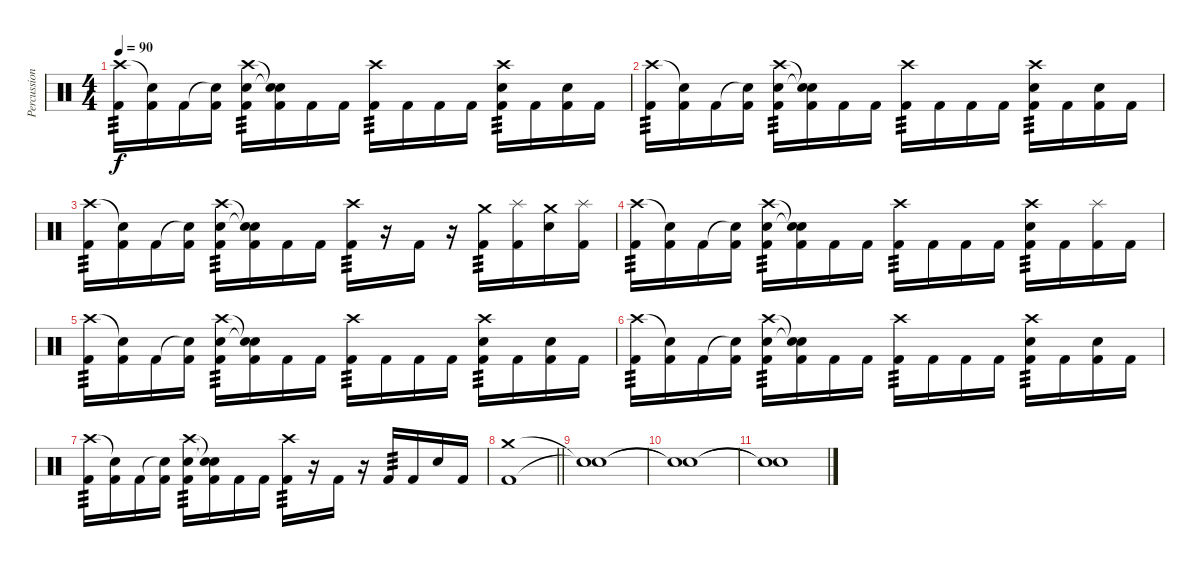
\track ("Percussion" "Percussion") {instrument percussion}
\staff {score}
\articulation defaults
\ts (4 4)
\tempo 90
\clef neutral
\ks c
("Crash high (hit)" "Kick (hit) 2").16{tp 3 dy f} ("Snare (hit)"{t} "Kick (hit) 2").16 "Kick (hit) 2".16 ("Snare (hit)"{t} "Kick (hit) 2").16 ("Crash high (hit)" "Snare (hit) 2" "Kick (hit) 2").16{tp 3} ("Snare (hit)"{t} "Snare (hit)"{t} "Kick (hit) 2").16 "Kick (hit) 2".16 "Kick (hit) 2".16 ("Crash high (hit)" "Kick (hit) 2").16{tp 3} "Kick (hit) 2".16 "Kick (hit) 2".16 "Kick (hit) 2".16 ("Crash high (hit)" "Snare (hit) 2" "Kick (hit) 2").16{tp 3} "Kick (hit) 2".16 ("Snare (hit) 2" "Kick (hit) 2").16 "Kick (hit) 2".16 |
("Crash high (hit)" "Kick (hit) 2").16{tp 3} ("Snare (hit)"{t} "Kick (hit) 2").16 "Kick (hit) 2".16 ("Snare (hit)"{t} "Kick (hit) 2").16 ("Crash high (hit)" "Snare (hit) 2" "Kick (hit) 2").16{tp 3} ("Snare (hit)"{t} "Snare (hit)"{t} "Kick (hit) 2").16 "Kick (hit) 2".16 "Kick (hit) 2".16 ("Crash high (hit)" "Kick (hit) 2").16{tp 3} "Kick (hit) 2".16 "Kick (hit) 2".16 "Kick (hit) 2".16 ("Crash high (hit)" "Snare (hit) 2" "Kick (hit) 2").16{tp 3} "Kick (hit) 2".16 ("Snare (hit) 2" "Kick (hit) 2").16 "Kick (hit) 2".16 |
("Crash high (hit)" "Kick (hit) 2").16{tp 3} ("Snare (hit)"{t} "Kick (hit) 2").16 "Kick (hit) 2".16 ("Snare (hit)"{t} "Kick (hit) 2").16 ("Crash high (hit)" "Snare (hit) 2" "Kick (hit) 2").16{tp 3} ("Snare (hit)"{t} "Snare (hit)"{t} "Kick (hit) 2").16 "Kick (hit) 2".16 "Kick (hit) 2".16 ("Crash high (hit)" "Kick (hit) 2").16{tp 3} r.16 "Kick (hit) 2".16 r.16 ("Crash medium (hit)" "Kick (hit) 2").16{tp 3} ("Splash (hit)" "Kick (hit) 2").16 ("Crash medium (hit)" "Snare (hit) 2").16 ("Splash (hit)" "Kick (hit) 2").16 |
("Crash high (hit)" "Kick (hit) 2").16{tp 3} ("Snare (hit)"{t} "Kick (hit) 2").16 "Kick (hit) 2".16 ("Snare (hit)"{t} "Kick (hit) 2").16 ("Crash high (hit)" "Snare (hit) 2" "Kick (hit) 2").16{tp 3} ("Snare (hit)"{t} "Snare (hit)"{t} "Kick (hit) 2").16 "Kick (hit) 2".16 "Kick (hit) 2".16 ("Crash high (hit)" "Kick (hit) 2").16{tp 3} "Kick (hit) 2".16 "Kick (hit) 2".16 "Kick (hit) 2".16 ("Crash high (hit)" "Snare (hit) 2" "Kick (hit) 2").16{tp 3} "Kick (hit) 2".16 ("Splash (hit)" "Kick (hit) 2").16 "Kick (hit) 2".16 |
("Crash high (hit)" "Kick (hit) 2").16{tp 3} ("Snare (hit)"{t} "Kick (hit) 2").16 "Kick (hit) 2".16 ("Snare (hit)"{t} "Kick (hit) 2").16 ("Crash high (hit)" "Snare (hit) 2" "Kick (hit) 2").16{tp 3} ("Snare (hit)"{t} "Snare (hit)"{t} "Kick (hit) 2").16 "Kick (hit) 2".16 "Kick (hit) 2".16 ("Crash high (hit)" "Kick (hit) 2").16{tp 3} "Kick (hit) 2".16 "Kick (hit) 2".16 "Kick (hit) 2".16 ("Crash high (hit)" "Snare (hit) 2" "Kick (hit) 2").16{tp 3} "Kick (hit) 2".16 ("Snare (hit) 2" "Kick (hit) 2").16 "Kick (hit) 2".16 |
("Crash high (hit)" "Kick (hit) 2").16{tp 3} ("Snare (hit)"{t} "Kick (hit) 2").16 "Kick (hit) 2".16 ("Snare (hit)"{t} "Kick (hit) 2").16 ("Crash high (hit)" "Snare (hit) 2" "Kick (hit) 2").16{tp 3} ("Snare (hit)"{t} "Snare (hit)"{t} "Kick (hit) 2").16 "Kick (hit) 2".16 "Kick (hit) 2".16 ("Crash high (hit)" "Kick (hit) 2").16{tp 3} "Kick (hit) 2".16 "Kick (hit) 2".16 "Kick (hit) 2".16 ("Crash high (hit)" "Snare (hit) 2" "Kick (hit) 2").16{tp 3} "Kick (hit) 2".16 ("Snare (hit) 2" "Kick (hit) 2").16 "Kick (hit) 2".16 |
("Crash high (hit)" "Kick (hit) 2").16{tp 3} ("Snare (hit)"{t} "Kick (hit) 2").16 "Kick (hit) 2".16 ("Snare (hit)"{t} "Kick (hit) 2").16 ("Crash high (hit)" "Snare (hit) 2" "Kick (hit) 2").16{tp 3} ("Snare (hit)"{t} "Snare (hit)"{t} "Kick (hit) 2").16 "Kick (hit) 2".16 "Kick (hit) 2".16 ("Crash high (hit)" "Kick (hit) 2").16{tp 3} r.16 "Kick (hit) 2".16 r.16 "Kick (hit) 2".16{tp 3} "Kick (hit) 2".16 "Snare (hit) 2".16 "Kick (hit) 2".16 |
\barLineRight lightlight
("Crash medium (hit)" "Kick (hit) 2").1 |
("Snare (hit)"{t} "Snare (hit)"{t}).1 |
("Snare (hit)"{t} "Snare (hit)"{t}).1 |
("Snare (hit)"{t} "Snare (hit)"{t}).1
